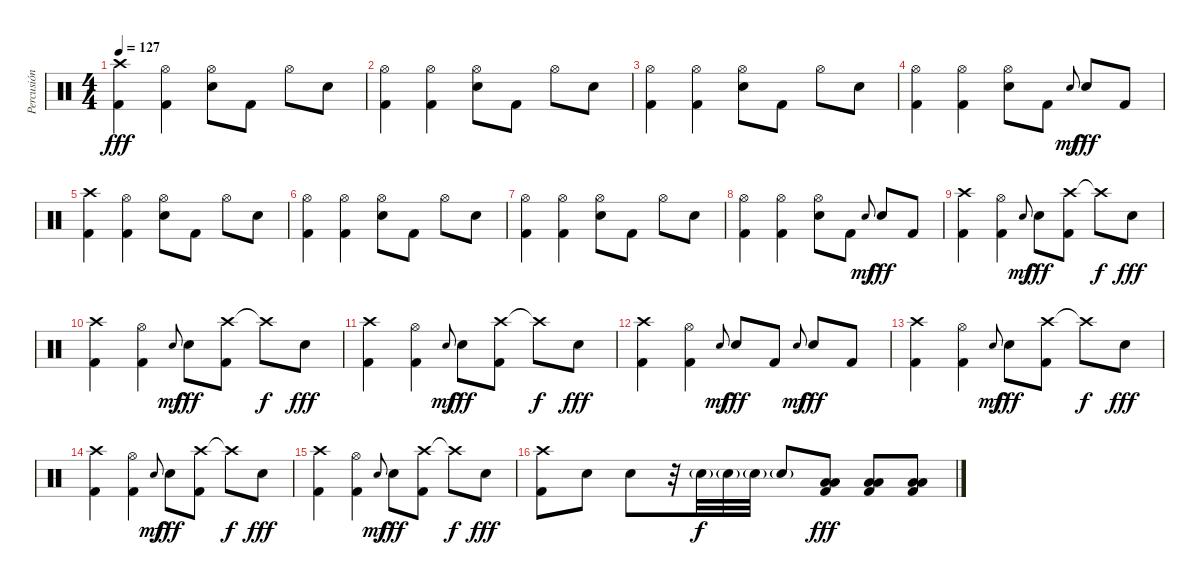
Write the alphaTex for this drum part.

\track ("Percusión" "Percusión") {instrument percussion}
\staff {score}
\articulation defaults
\ts (4 4)
\tempo 127
\clef neutral
\ks c
("Crash high (hit)" "Kick (hit) 2").4{dy fff} ("Hi-Hat (open)" "Kick (hit) 2").4 ("Hi-Hat (open)" "Electric Snare (hit)").8 "Kick (hit) 2".8 "Hi-Hat (open)".8 "Electric Snare (hit)".8 |
("Hi-Hat (open)" "Kick (hit) 2").4 ("Hi-Hat (open)" "Kick (hit) 2").4 ("Hi-Hat (open)" "Electric Snare (hit)").8 "Kick (hit) 2".8 "Hi-Hat (open)".8 "Electric Snare (hit)".8 |
("Hi-Hat (open)" "Kick (hit) 2").4 ("Hi-Hat (open)" "Kick (hit) 2").4 ("Hi-Hat (open)" "Electric Snare (hit)").8 "Kick (hit) 2".8 "Hi-Hat (open)".8 "Electric Snare (hit)".8 |
("Hi-Hat (open)" "Kick (hit) 2").4 ("Hi-Hat (open)" "Kick (hit) 2").4 ("Hi-Hat (open)" "Electric Snare (hit)").8 "Kick (hit) 2".8 "Electric Snare (hit)".8{gr onbeat dy mf} "Electric Snare (hit)".8{dy fff} "Kick (hit) 2".8 |
("Crash high (hit)" "Kick (hit) 2").4 ("Hi-Hat (open)" "Kick (hit) 2").4 ("Hi-Hat (open)" "Electric Snare (hit)").8 "Kick (hit) 2".8 "Hi-Hat (open)".8 "Electric Snare (hit)".8 |
("Hi-Hat (open)" "Kick (hit) 2").4 ("Hi-Hat (open)" "Kick (hit) 2").4 ("Hi-Hat (open)" "Electric Snare (hit)").8 "Kick (hit) 2".8 "Hi-Hat (open)".8 "Electric Snare (hit)".8 |
("Hi-Hat (open)" "Kick (hit) 2").4 ("Hi-Hat (open)" "Kick (hit) 2").4 ("Hi-Hat (open)" "Electric Snare (hit)").8 "Kick (hit) 2".8 "Hi-Hat (open)".8 "Electric Snare (hit)".8 |
("Hi-Hat (open)" "Kick (hit) 2").4 ("Hi-Hat (open)" "Kick (hit) 2").4 ("Hi-Hat (open)" "Electric Snare (hit)").8 "Kick (hit) 2".8 "Electric Snare (hit)".8{gr onbeat dy mf} "Electric Snare (hit)".8{dy fff} "Kick (hit) 2".8 |
("Crash high (hit)" "Kick (hit) 2").4 ("Hi-Hat (open)" "Kick (hit) 2").4 "Electric Snare (hit)".8{gr onbeat dy mf} "Electric Snare (hit)".8{dy fff} ("Crash high (hit)" "Kick (hit) 2").8 "Crash high (hit)"{t}.8{dy f} "Electric Snare (hit)".8{dy fff} |
("Crash high (hit)" "Kick (hit) 2").4 ("Hi-Hat (open)" "Kick (hit) 2").4 "Electric Snare (hit)".8{gr onbeat dy mf} "Electric Snare (hit)".8{dy fff} ("Crash high (hit)" "Kick (hit) 2").8 "Crash high (hit)"{t}.8{dy f} "Electric Snare (hit)".8{dy fff} |
("Crash high (hit)" "Kick (hit) 2").4 ("Hi-Hat (open)" "Kick (hit) 2").4 "Electric Snare (hit)".8{gr onbeat dy mf} "Electric Snare (hit)".8{dy fff} ("Crash high (hit)" "Kick (hit) 2").8 "Crash high (hit)"{t}.8{dy f} "Electric Snare (hit)".8{dy fff} |
("Crash high (hit)" "Kick (hit) 2").4 ("Hi-Hat (open)" "Kick (hit) 2").4 "Electric Snare (hit)".8{gr onbeat dy mf} "Electric Snare (hit)".8{dy fff} "Kick (hit) 2".8 "Electric Snare (hit)".8{gr onbeat dy mf} "Electric Snare (hit)".8{dy fff} "Kick (hit) 2".8 |
("Crash high (hit)" "Kick (hit) 2").4 ("Hi-Hat (open)" "Kick (hit) 2").4 "Electric Snare (hit)".8{gr onbeat dy mf} "Electric Snare (hit)".8{dy fff} ("Crash high (hit)" "Kick (hit) 2").8 "Crash high (hit)"{t}.8{dy f} "Electric Snare (hit)".8{dy fff} |
("Crash high (hit)" "Kick (hit) 2").4 ("Hi-Hat (open)" "Kick (hit) 2").4 "Electric Snare (hit)".8{gr onbeat dy mf} "Electric Snare (hit)".8{dy fff} ("Crash high (hit)" "Kick (hit) 2").8 "Crash high (hit)"{t}.8{dy f} "Electric Snare (hit)".8{dy fff} |
("Crash high (hit)" "Kick (hit) 2").4 ("Hi-Hat (open)" "Kick (hit) 2").4 "Electric Snare (hit)".8{gr onbeat dy mf} "Electric Snare (hit)".8{dy fff} ("Crash high (hit)" "Kick (hit) 2").8 "Crash high (hit)"{t}.8{dy f} "Electric Snare (hit)".8{dy fff} |
("Crash high (hit)" "Kick (hit) 2").8 "Electric Snare (hit)".8 "Electric Snare (hit)".8 r.32 "Electric Snare (hit)"{g}.32{dy f} "Electric Snare (hit)"{g}.32 "Electric Snare (hit)"{g}.32 "Electric Snare (hit)"{g}.8 ("Low Tom (hit)" "Low Floor Tom (hit)" "Kick (hit) 2").8{dy fff} ("Low Tom (hit)" "Low Floor Tom (hit)" "Kick (hit) 2").8 ("Low Tom (hit)" "Low Floor Tom (hit)" "Kick (hit) 2").8
